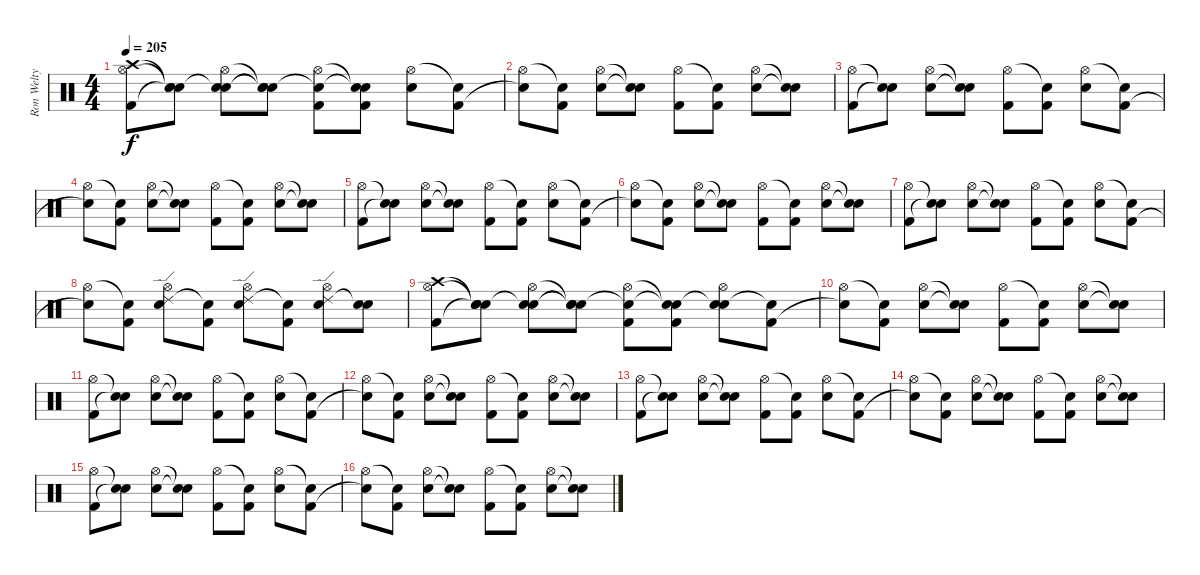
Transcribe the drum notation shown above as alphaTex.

\track ("Ron Welty" "Ron Welty") {instrument percussion}
\staff {score}
\articulation defaults
\ts (4 4)
\tempo 205
\clef neutral
\ks c
("Crash high (hit)" "Hi-Hat (open)" "Kick (hit) 2").8{dy f} ("Snare (hit)"{t} "Snare (hit)"{t} "Snare (hit)"{t}).8 ("Snare (hit)"{t} "Hi-Hat (open)" "Electric Snare (hit)").8 ("Snare (hit)"{t} "Snare (hit)"{t} "Snare (hit)"{t}).8 ("Snare (hit)"{t} "Hi-Hat (open)" "Kick (hit) 2").8 ("Snare (hit)"{t} "Snare (hit)"{t} "Kick (hit) 2").8 ("Hi-Hat (open)" "Electric Snare (hit)").8 ("Snare (hit)"{t} "Kick (hit) 2").8 |
("Hi-Hat (open)" "Snare (hit)"{t}).8 ("Snare (hit)"{t} "Kick (hit) 2").8 ("Hi-Hat (open)" "Electric Snare (hit)").8 ("Snare (hit)"{t} "Snare (hit)"{t}).8 ("Hi-Hat (open)" "Kick (hit) 2").8 ("Snare (hit)"{t} "Kick (hit) 2").8 ("Hi-Hat (open)" "Electric Snare (hit)").8 ("Snare (hit)"{t} "Snare (hit)"{t}).8 |
("Hi-Hat (open)" "Kick (hit) 2").8 ("Snare (hit)"{t} "Snare (hit)"{t}).8 ("Hi-Hat (open)" "Electric Snare (hit)").8 ("Snare (hit)"{t} "Snare (hit)"{t}).8 ("Hi-Hat (open)" "Kick (hit) 2").8 ("Snare (hit)"{t} "Kick (hit) 2").8 ("Hi-Hat (open)" "Electric Snare (hit)").8 ("Snare (hit)"{t} "Kick (hit) 2").8 |
("Hi-Hat (open)" "Snare (hit)"{t}).8 ("Snare (hit)"{t} "Kick (hit) 2").8 ("Hi-Hat (open)" "Electric Snare (hit)").8 ("Snare (hit)"{t} "Snare (hit)"{t}).8 ("Hi-Hat (open)" "Kick (hit) 2").8 ("Snare (hit)"{t} "Kick (hit) 2").8 ("Hi-Hat (open)" "Electric Snare (hit)").8 ("Snare (hit)"{t} "Snare (hit)"{t}).8 |
("Hi-Hat (open)" "Kick (hit) 2").8 ("Snare (hit)"{t} "Snare (hit)"{t}).8 ("Hi-Hat (open)" "Electric Snare (hit)").8 ("Snare (hit)"{t} "Snare (hit)"{t}).8 ("Hi-Hat (open)" "Kick (hit) 2").8 ("Snare (hit)"{t} "Kick (hit) 2").8 ("Hi-Hat (open)" "Electric Snare (hit)").8 ("Snare (hit)"{t} "Kick (hit) 2").8 |
("Hi-Hat (open)" "Snare (hit)"{t}).8 ("Snare (hit)"{t} "Kick (hit) 2").8 ("Hi-Hat (open)" "Electric Snare (hit)").8 ("Snare (hit)"{t} "Snare (hit)"{t}).8 ("Hi-Hat (open)" "Kick (hit) 2").8 ("Snare (hit)"{t} "Kick (hit) 2").8 ("Hi-Hat (open)" "Electric Snare (hit)").8 ("Snare (hit)"{t} "Snare (hit)"{t}).8 |
("Hi-Hat (open)" "Kick (hit) 2").8 ("Snare (hit)"{t} "Snare (hit)"{t}).8 ("Hi-Hat (open)" "Electric Snare (hit)").8 ("Snare (hit)"{t} "Snare (hit)"{t}).8 ("Hi-Hat (open)" "Kick (hit) 2").8 ("Snare (hit)"{t} "Kick (hit) 2").8 ("Hi-Hat (open)" "Electric Snare (hit)").8 ("Snare (hit)"{t} "Kick (hit) 2").8 |
("Hi-Hat (open)" "Snare (hit)"{t}).8 ("Snare (hit)"{t} "Kick (hit) 2").8 ("Ride (edge) 2" "Hi-Hat (open)" "Electric Snare (hit)").8 ("Snare (hit)"{t} "Kick (hit) 2").8 ("Ride (edge) 2" "Hi-Hat (open)" "Electric Snare (hit)").8 ("Snare (hit)"{t} "Kick (hit) 2").8 ("Ride (edge) 2" "Hi-Hat (open)" "Electric Snare (hit)").8 ("Snare (hit)"{t} "Electric Snare (hit)").8 |
("Crash high (hit)" "Hi-Hat (open)" "Kick (hit) 2").8 ("Snare (hit)"{t} "Snare (hit)"{t} "Snare (hit)"{t}).8 ("Snare (hit)"{t} "Hi-Hat (open)" "Electric Snare (hit)").8 ("Snare (hit)"{t} "Snare (hit)"{t} "Snare (hit)"{t}).8 ("Snare (hit)"{t} "Hi-Hat (open)" "Kick (hit) 2").8 ("Snare (hit)"{t} "Snare (hit)"{t} "Kick (hit) 2").8 ("Snare (hit)"{t} "Hi-Hat (open)" "Electric Snare (hit)").8 ("Snare (hit)"{t} "Kick (hit) 2").8 |
("Hi-Hat (open)" "Snare (hit)"{t}).8 ("Snare (hit)"{t} "Kick (hit) 2").8 ("Hi-Hat (open)" "Electric Snare (hit)").8 ("Snare (hit)"{t} "Snare (hit)"{t}).8 ("Hi-Hat (open)" "Kick (hit) 2").8 ("Snare (hit)"{t} "Kick (hit) 2").8 ("Hi-Hat (open)" "Electric Snare (hit)").8 ("Snare (hit)"{t} "Snare (hit)"{t}).8 |
("Hi-Hat (open)" "Kick (hit) 2").8 ("Snare (hit)"{t} "Snare (hit)"{t}).8 ("Hi-Hat (open)" "Electric Snare (hit)").8 ("Snare (hit)"{t} "Snare (hit)"{t}).8 ("Hi-Hat (open)" "Kick (hit) 2").8 ("Snare (hit)"{t} "Kick (hit) 2").8 ("Hi-Hat (open)" "Electric Snare (hit)").8 ("Snare (hit)"{t} "Kick (hit) 2").8 |
("Hi-Hat (open)" "Snare (hit)"{t}).8 ("Snare (hit)"{t} "Kick (hit) 2").8 ("Hi-Hat (open)" "Electric Snare (hit)").8 ("Snare (hit)"{t} "Snare (hit)"{t}).8 ("Hi-Hat (open)" "Kick (hit) 2").8 ("Snare (hit)"{t} "Kick (hit) 2").8 ("Hi-Hat (open)" "Electric Snare (hit)").8 ("Snare (hit)"{t} "Snare (hit)"{t}).8 |
("Hi-Hat (open)" "Kick (hit) 2").8 ("Snare (hit)"{t} "Snare (hit)"{t}).8 ("Hi-Hat (open)" "Electric Snare (hit)").8 ("Snare (hit)"{t} "Snare (hit)"{t}).8 ("Hi-Hat (open)" "Kick (hit) 2").8 ("Snare (hit)"{t} "Kick (hit) 2").8 ("Hi-Hat (open)" "Electric Snare (hit)").8 ("Snare (hit)"{t} "Kick (hit) 2").8 |
("Hi-Hat (open)" "Snare (hit)"{t}).8 ("Snare (hit)"{t} "Kick (hit) 2").8 ("Hi-Hat (open)" "Electric Snare (hit)").8 ("Snare (hit)"{t} "Snare (hit)"{t}).8 ("Hi-Hat (open)" "Kick (hit) 2").8 ("Snare (hit)"{t} "Kick (hit) 2").8 ("Hi-Hat (open)" "Electric Snare (hit)").8 ("Snare (hit)"{t} "Snare (hit)"{t}).8 |
("Hi-Hat (open)" "Kick (hit) 2").8 ("Snare (hit)"{t} "Snare (hit)"{t}).8 ("Hi-Hat (open)" "Electric Snare (hit)").8 ("Snare (hit)"{t} "Snare (hit)"{t}).8 ("Hi-Hat (open)" "Kick (hit) 2").8 ("Snare (hit)"{t} "Kick (hit) 2").8 ("Hi-Hat (open)" "Electric Snare (hit)").8 ("Snare (hit)"{t} "Kick (hit) 2").8 |
("Hi-Hat (open)" "Snare (hit)"{t}).8 ("Snare (hit)"{t} "Kick (hit) 2").8 ("Hi-Hat (open)" "Electric Snare (hit)").8 ("Snare (hit)"{t} "Snare (hit)"{t}).8 ("Hi-Hat (open)" "Kick (hit) 2").8 ("Snare (hit)"{t} "Kick (hit) 2").8 ("Hi-Hat (open)" "Electric Snare (hit)").8 ("Snare (hit)"{t} "Snare (hit)"{t}).8
